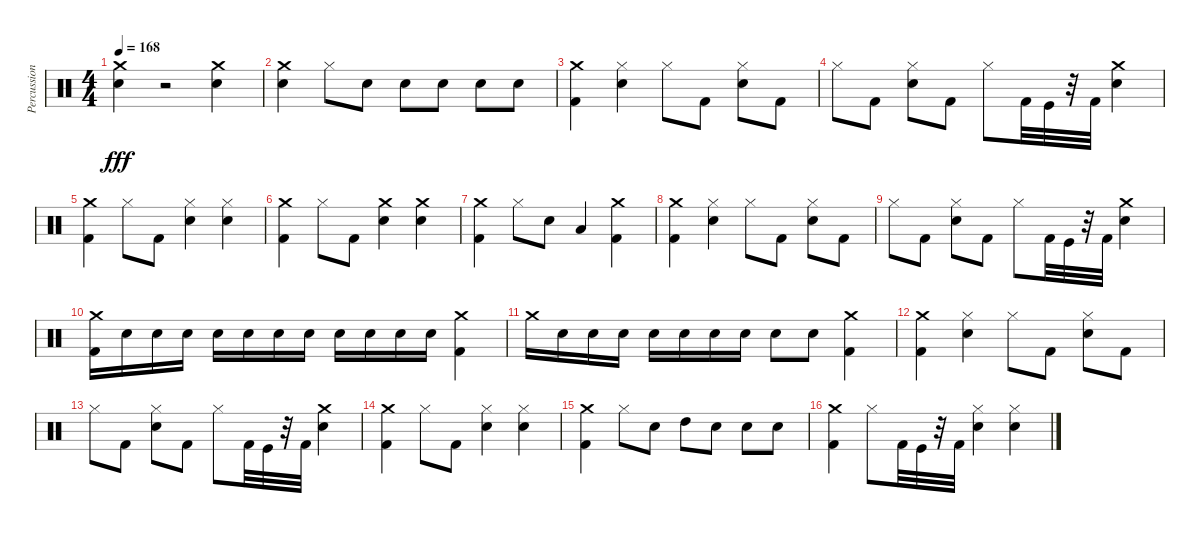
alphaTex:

\track ("Percussion" "Percussion") {instrument percussion}
\staff {score}
\articulation defaults
\ts (4 4)
\tempo 168
\clef neutral
\ks c
("Snare (hit) 2" "Crash medium (hit)").4{dy fff} r.2 ("Crash medium (hit)" "Snare (hit) 2").4 |
("Snare (hit) 2" "Crash medium (hit)").4 "Hi-Hat (closed)".8 "Snare (hit) 2".8 "Snare (hit) 2".8 "Snare (hit) 2".8 "Snare (hit) 2".8 "Snare (hit) 2".8 |
("Kick (hit) 2" "Crash medium (hit)").4 ("Hi-Hat (closed)" "Snare (hit) 2").4 "Hi-Hat (closed)".8 "Kick (hit) 2".8 ("Snare (hit) 2" "Hi-Hat (closed)").8 "Kick (hit) 2".8 |
"Hi-Hat (closed)".8 "Kick (hit) 2".8 ("Snare (hit) 2" "Hi-Hat (closed)").8 "Kick (hit) 2".8 "Hi-Hat (closed)".8 "Kick (hit) 2".32 "Kick (hit)".32 r.32 "Kick (hit) 2".32 ("Crash medium (hit)" "Snare (hit) 2").4 |
("Kick (hit) 2" "Crash medium (hit)").4 "Hi-Hat (closed)".8 "Kick (hit) 2".8 ("Snare (hit) 2" "Hi-Hat (closed)").4 ("Hi-Hat (closed)" "Snare (hit) 2").4 |
("Kick (hit) 2" "Crash medium (hit)").4 "Hi-Hat (closed)".8 "Kick (hit) 2".8 ("Crash medium (hit)" "Snare (hit) 2").4 ("Snare (hit) 2" "Crash medium (hit)").4 |
("Kick (hit) 2" "Crash medium (hit)").4 "Hi-Hat (closed)".8 "Snare (hit) 2".8 "Low Tom (hit)".4 ("Kick (hit) 2" "Crash medium (hit)").4 |
("Kick (hit) 2" "Crash medium (hit)").4 ("Hi-Hat (closed)" "Snare (hit) 2").4 "Hi-Hat (closed)".8 "Kick (hit) 2".8 ("Snare (hit) 2" "Hi-Hat (closed)").8 "Kick (hit) 2".8 |
"Hi-Hat (closed)".8 "Kick (hit) 2".8 ("Snare (hit) 2" "Hi-Hat (closed)").8 "Kick (hit) 2".8 "Hi-Hat (closed)".8 "Kick (hit) 2".32 "Kick (hit)".32 r.32 "Kick (hit) 2".32 ("Crash medium (hit)" "Snare (hit) 2").4 |
("Kick (hit) 2" "Crash medium (hit)").16 "Snare (hit) 2".16 "Snare (hit) 2".16 "Snare (hit) 2".16 "Snare (hit) 2".16 "Snare (hit) 2".16 "Snare (hit) 2".16 "Snare (hit) 2".16 "Snare (hit) 2".16 "Snare (hit) 2".16 "Snare (hit) 2".16 "Snare (hit) 2".16 ("Kick (hit) 2" "Crash medium (hit)").4 |
"Crash medium (hit)".16 "Snare (hit) 2".16 "Snare (hit) 2".16 "Snare (hit) 2".16 "Snare (hit) 2".16 "Snare (hit) 2".16 "Snare (hit) 2".16 "Snare (hit) 2".16 "Snare (hit) 2".8 "Snare (hit) 2".8 ("Crash medium (hit)" "Kick (hit) 2").4 |
("Kick (hit) 2" "Crash medium (hit)").4 ("Hi-Hat (closed)" "Snare (hit) 2").4 "Hi-Hat (closed)".8 "Kick (hit) 2".8 ("Snare (hit) 2" "Hi-Hat (closed)").8 "Kick (hit) 2".8 |
"Hi-Hat (closed)".8 "Kick (hit) 2".8 ("Snare (hit) 2" "Hi-Hat (closed)").8 "Kick (hit) 2".8 "Hi-Hat (closed)".8 "Kick (hit) 2".32 "Kick (hit)".32 r.32 "Kick (hit) 2".32 ("Crash medium (hit)" "Snare (hit) 2").4 |
("Kick (hit) 2" "Crash medium (hit)").4 "Hi-Hat (closed)".8 "Kick (hit) 2".8 ("Snare (hit) 2" "Hi-Hat (closed)").4 ("Hi-Hat (closed)" "Snare (hit) 2").4 |
("Kick (hit) 2" "Crash medium (hit)").4 "Hi-Hat (closed)".8 "Snare (hit) 2".8 "High Tom (hit)".8 "Snare (hit) 2".8 "Snare (hit) 2".8 "Snare (hit) 2".8 |
("Kick (hit) 2" "Crash medium (hit)").4 "Hi-Hat (closed)".8 "Kick (hit) 2".32 "Kick (hit)".32 r.32 "Kick (hit) 2".32 ("Snare (hit) 2" "Hi-Hat (closed)").4 ("Hi-Hat (closed)" "Snare (hit) 2").4
